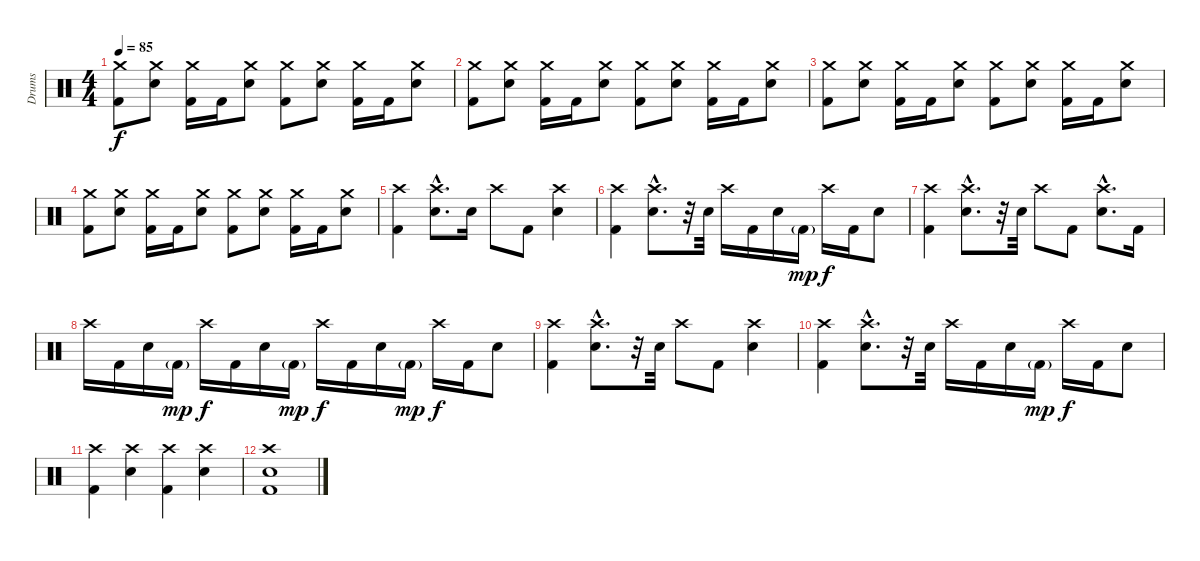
\track ("Drums" "Drums") {instrument percussion}
\staff {score}
\articulation defaults
\ts (4 4)
\tempo 85
\clef neutral
\ks c
("Crash medium (hit)" "Kick (hit) 2").8{dy f} ("Crash medium (hit)" "Snare (hit) 2").8 ("Crash medium (hit)" "Kick (hit) 2").16 "Kick (hit) 2".16 ("Crash medium (hit)" "Snare (hit) 2").8 ("Crash medium (hit)" "Kick (hit) 2").8 ("Crash medium (hit)" "Snare (hit) 2").8 ("Crash medium (hit)" "Kick (hit) 2").16 "Kick (hit) 2".16 ("Crash medium (hit)" "Snare (hit) 2").8 |
("Crash medium (hit)" "Kick (hit) 2").8 ("Crash medium (hit)" "Snare (hit) 2").8 ("Crash medium (hit)" "Kick (hit) 2").16 "Kick (hit) 2".16 ("Crash medium (hit)" "Snare (hit) 2").8 ("Crash medium (hit)" "Kick (hit) 2").8 ("Crash medium (hit)" "Snare (hit) 2").8 ("Crash medium (hit)" "Kick (hit) 2").16 "Kick (hit) 2".16 ("Crash medium (hit)" "Snare (hit) 2").8 |
("Crash medium (hit)" "Kick (hit) 2").8 ("Crash medium (hit)" "Snare (hit) 2").8 ("Crash medium (hit)" "Kick (hit) 2").16 "Kick (hit) 2".16 ("Crash medium (hit)" "Snare (hit) 2").8 ("Crash medium (hit)" "Kick (hit) 2").8 ("Crash medium (hit)" "Snare (hit) 2").8 ("Crash medium (hit)" "Kick (hit) 2").16 "Kick (hit) 2".16 ("Crash medium (hit)" "Snare (hit) 2").8 |
("Crash medium (hit)" "Kick (hit) 2").8 ("Crash medium (hit)" "Snare (hit) 2").8 ("Crash medium (hit)" "Kick (hit) 2").16 "Kick (hit) 2".16 ("Crash medium (hit)" "Snare (hit) 2").8 ("Crash medium (hit)" "Kick (hit) 2").8 ("Crash medium (hit)" "Snare (hit) 2").8 ("Crash medium (hit)" "Kick (hit) 2").16 "Kick (hit) 2".16 ("Crash medium (hit)" "Snare (hit) 2").8 |
("Crash high (hit)" "Kick (hit) 2").4 ("Crash high (hit)"{hac} "Snare (hit) 2"{hac}).8{d} "Snare (hit) 2".16 "Crash high (hit)".8 "Kick (hit) 2".8 ("Crash high (hit)" "Snare (hit) 2").4 |
("Crash high (hit)" "Kick (hit) 2").4 ("Crash high (hit)"{hac} "Snare (hit) 2"{hac}).8{d} r.32 "Snare (hit) 2".32 "Crash high (hit)".16 "Kick (hit) 2".16 "Snare (hit) 2".16 "Kick (hit) 2"{g}.16{dy mp} "Crash high (hit)".16{dy f} "Kick (hit) 2".16 "Snare (hit) 2".8 |
("Crash high (hit)" "Kick (hit) 2").4 ("Crash high (hit)"{hac} "Snare (hit) 2"{hac}).8{d} r.32 "Snare (hit) 2".32 "Crash high (hit)".8 "Kick (hit) 2".8 ("Crash high (hit)"{hac} "Snare (hit) 2"{hac}).8{d} "Kick (hit) 2".16 |
"Crash high (hit)".16 "Kick (hit) 2".16 "Snare (hit) 2".16 "Kick (hit) 2"{g}.16{dy mp} "Crash high (hit)".16{dy f} "Kick (hit) 2".16 "Snare (hit) 2".16 "Kick (hit) 2"{g}.16{dy mp} "Crash high (hit)".16{dy f} "Kick (hit) 2".16 "Snare (hit) 2".16 "Kick (hit) 2"{g}.16{dy mp} "Crash high (hit)".16{dy f} "Kick (hit) 2".16 "Snare (hit) 2".8 |
("Crash high (hit)" "Kick (hit) 2").4 ("Crash high (hit)"{hac} "Snare (hit) 2"{hac}).8{d} r.32 "Snare (hit) 2".32 "Crash high (hit)".8 "Kick (hit) 2".8 ("Crash high (hit)" "Snare (hit) 2").4 |
("Crash high (hit)" "Kick (hit) 2").4 ("Crash high (hit)"{hac} "Snare (hit) 2"{hac}).8{d} r.32 "Snare (hit) 2".32 "Crash high (hit)".16 "Kick (hit) 2".16 "Snare (hit) 2".16 "Kick (hit) 2"{g}.16{dy mp} "Crash high (hit)".16{dy f} "Kick (hit) 2".16 "Snare (hit) 2".8 |
("Crash high (hit)" "Kick (hit) 2").4 ("Crash high (hit)" "Snare (hit) 2").4 ("Crash high (hit)" "Kick (hit) 2").4 ("Crash high (hit)" "Snare (hit) 2").4 |
("Crash high (hit)" "Snare (hit) 2" "Kick (hit) 2").1
